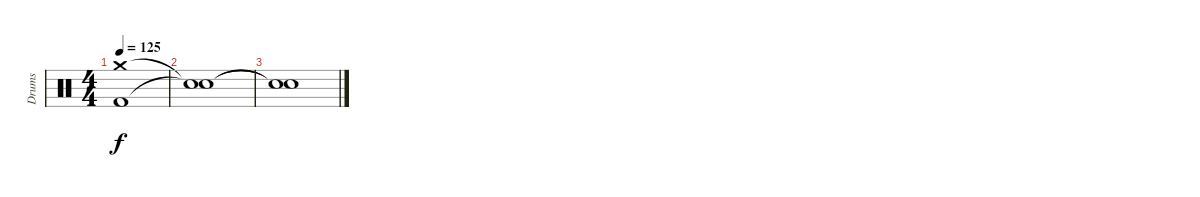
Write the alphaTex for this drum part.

\track ("Drums" "Drums") {instrument percussion}
\staff {score}
\articulation defaults
\ts (4 4)
\tempo 125
\clef neutral
\ks c
("Crash medium (hit)" "Kick (hit) 2").1{dy f} |
("Snare (hit)"{t} "Snare (hit)"{t}).1 |
("Snare (hit)"{t} "Snare (hit)"{t}).1
